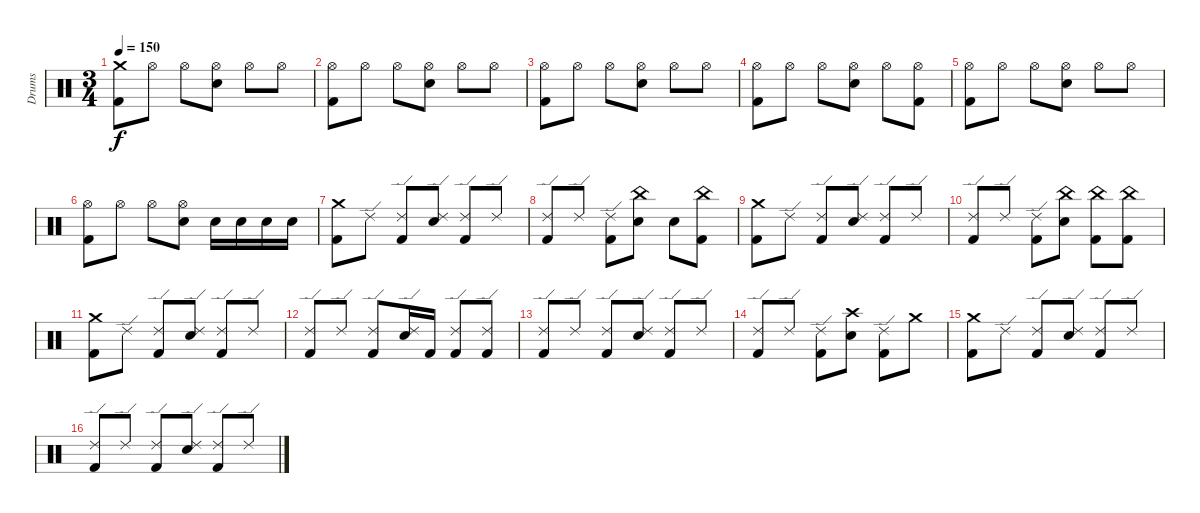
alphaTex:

\track ("Drums" "Drums") {instrument percussion}
\staff {score}
\articulation defaults
\ts (3 4)
\tempo 150
\clef neutral
\ks c
("Crash medium (hit)" "Kick (hit) 2").8{dy f} "Hi-Hat (open)".8 "Hi-Hat (open)".8 ("Hi-Hat (open)" "Snare (hit) 2").8 "Hi-Hat (open)".8 "Hi-Hat (open)".8 |
("Hi-Hat (open)" "Kick (hit) 2").8 "Hi-Hat (open)".8 "Hi-Hat (open)".8 ("Hi-Hat (open)" "Snare (hit) 2").8 "Hi-Hat (open)".8 "Hi-Hat (open)".8 |
("Hi-Hat (open)" "Kick (hit) 2").8 "Hi-Hat (open)".8 "Hi-Hat (open)".8 ("Hi-Hat (open)" "Snare (hit) 2").8 "Hi-Hat (open)".8 "Hi-Hat (open)".8 |
("Hi-Hat (open)" "Kick (hit) 2").8 "Hi-Hat (open)".8 "Hi-Hat (open)".8 ("Hi-Hat (open)" "Snare (hit) 2").8 "Hi-Hat (open)".8 ("Hi-Hat (open)" "Kick (hit) 2").8 |
("Hi-Hat (open)" "Kick (hit) 2").8 "Hi-Hat (open)".8 "Hi-Hat (open)".8 ("Hi-Hat (open)" "Snare (hit) 2").8 "Hi-Hat (open)".8 "Hi-Hat (open)".8 |
("Hi-Hat (open)" "Kick (hit) 2").8 "Hi-Hat (open)".8 "Hi-Hat (open)".8 ("Hi-Hat (open)" "Snare (hit) 2").8 "Snare (hit) 2".16 "Snare (hit) 2".16 "Snare (hit) 2".16 "Snare (hit) 2".16 |
("Crash medium (hit)" "Kick (hit) 2").8 "Ride (edge) 2".8 ("Ride (edge) 2" "Kick (hit) 2").8 ("Ride (edge) 2" "Snare (hit) 2").8 ("Ride (edge) 2" "Kick (hit) 2").8 "Ride (edge) 2".8 |
("Ride (edge) 2" "Kick (hit) 2").8 "Ride (edge) 2".8 ("Ride (edge) 2" "Kick (hit) 2").8 ("China (hit)" "Snare (hit) 2").8 "Snare (hit) 2".8 ("China (hit)" "Kick (hit) 2").8 |
("Crash medium (hit)" "Kick (hit) 2").8 "Ride (edge) 2".8 ("Ride (edge) 2" "Kick (hit) 2").8 ("Ride (edge) 2" "Snare (hit) 2").8 ("Ride (edge) 2" "Kick (hit) 2").8 "Ride (edge) 2".8 |
("Ride (edge) 2" "Kick (hit) 2").8 "Ride (edge) 2".8 ("Ride (edge) 2" "Kick (hit) 2").8 ("China (hit)" "Snare (hit) 2").8 ("China (hit)" "Kick (hit) 2").8 ("China (hit)" "Kick (hit) 2").8 |
("Crash medium (hit)" "Kick (hit) 2").8 "Ride (edge) 2".8 ("Ride (edge) 2" "Kick (hit) 2").8 ("Ride (edge) 2" "Snare (hit) 2").8 ("Ride (edge) 2" "Kick (hit) 2").8 "Ride (edge) 2".8 |
("Ride (edge) 2" "Kick (hit) 2").8 "Ride (edge) 2".8 ("Ride (edge) 2" "Kick (hit) 2").8 ("Ride (edge) 2" "Snare (hit) 2").16 "Kick (hit) 2".16 ("Ride (edge) 2" "Kick (hit) 2").8 ("Ride (edge) 2" "Kick (hit) 2").8 |
("Ride (edge) 2" "Kick (hit) 2").8 "Ride (edge) 2".8 ("Ride (edge) 2" "Kick (hit) 2").8 ("Ride (edge) 2" "Snare (hit) 2").8 ("Ride (edge) 2" "Kick (hit) 2").8 "Ride (edge) 2".8 |
("Ride (edge) 2" "Kick (hit) 2").8 "Ride (edge) 2".8 ("Ride (edge) 2" "Kick (hit) 2").8 ("Crash high (hit)" "Snare (hit) 2").8 ("Ride (edge) 2" "Kick (hit) 2").8 "Crash medium (hit)".8 |
("Crash medium (hit)" "Kick (hit) 2").8 "Ride (edge) 2".8 ("Ride (edge) 2" "Kick (hit) 2").8 ("Ride (edge) 2" "Snare (hit) 2").8 ("Ride (edge) 2" "Kick (hit) 2").8 "Ride (edge) 2".8 |
("Ride (edge) 2" "Kick (hit) 2").8 "Ride (edge) 2".8 ("Ride (edge) 2" "Kick (hit) 2").8 ("Ride (edge) 2" "Snare (hit) 2").8 ("Ride (edge) 2" "Kick (hit) 2").8 "Ride (edge) 2".8
